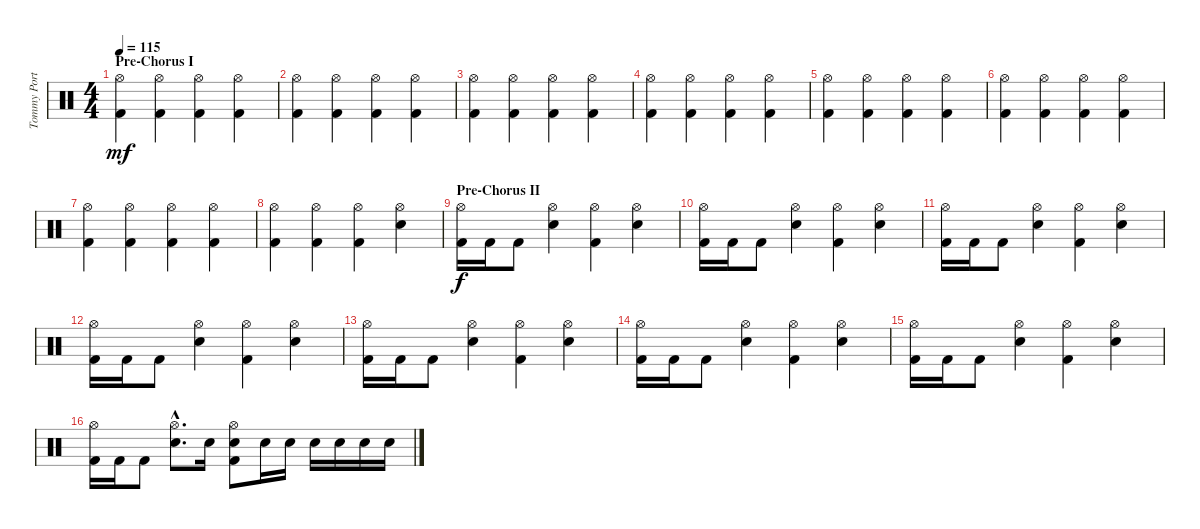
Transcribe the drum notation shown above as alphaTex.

\track ("Tommy Portino - Drums" "Tommy Port") {instrument percussion}
\staff {score}
\articulation defaults
\ts (4 4)
\section ("" "Pre-Chorus I")
\tempo 115
\clef neutral
\ks c
("Hi-Hat (open)" "Kick (hit) 2").4{dy mf} ("Hi-Hat (open)" "Kick (hit) 2").4 ("Hi-Hat (open)" "Kick (hit) 2").4 ("Hi-Hat (open)" "Kick (hit) 2").4 |
("Hi-Hat (open)" "Kick (hit) 2").4 ("Hi-Hat (open)" "Kick (hit) 2").4 ("Hi-Hat (open)" "Kick (hit) 2").4 ("Hi-Hat (open)" "Kick (hit) 2").4 |
("Hi-Hat (open)" "Kick (hit) 2").4 ("Hi-Hat (open)" "Kick (hit) 2").4 ("Hi-Hat (open)" "Kick (hit) 2").4 ("Hi-Hat (open)" "Kick (hit) 2").4 |
("Hi-Hat (open)" "Kick (hit) 2").4 ("Hi-Hat (open)" "Kick (hit) 2").4 ("Hi-Hat (open)" "Kick (hit) 2").4 ("Hi-Hat (open)" "Kick (hit) 2").4 |
("Hi-Hat (open)" "Kick (hit) 2").4 ("Hi-Hat (open)" "Kick (hit) 2").4 ("Hi-Hat (open)" "Kick (hit) 2").4 ("Hi-Hat (open)" "Kick (hit) 2").4 |
("Hi-Hat (open)" "Kick (hit) 2").4 ("Hi-Hat (open)" "Kick (hit) 2").4 ("Hi-Hat (open)" "Kick (hit) 2").4 ("Hi-Hat (open)" "Kick (hit) 2").4 |
("Hi-Hat (open)" "Kick (hit) 2").4 ("Hi-Hat (open)" "Kick (hit) 2").4 ("Hi-Hat (open)" "Kick (hit) 2").4 ("Hi-Hat (open)" "Kick (hit) 2").4 |
("Hi-Hat (open)" "Kick (hit) 2").4 ("Hi-Hat (open)" "Kick (hit) 2").4 ("Hi-Hat (open)" "Kick (hit) 2").4 ("Hi-Hat (open)" "Electric Snare (hit)").4 |
\section ("" "Pre-Chorus II")
("Hi-Hat (open)" "Kick (hit) 2").16{dy f} "Kick (hit) 2".16 "Kick (hit) 2".8 ("Hi-Hat (open)" "Electric Snare (hit)").4 ("Hi-Hat (open)" "Kick (hit) 2").4 ("Hi-Hat (open)" "Electric Snare (hit)").4 |
("Hi-Hat (open)" "Kick (hit) 2").16 "Kick (hit) 2".16 "Kick (hit) 2".8 ("Hi-Hat (open)" "Electric Snare (hit)").4 ("Hi-Hat (open)" "Kick (hit) 2").4 ("Hi-Hat (open)" "Electric Snare (hit)").4 |
("Hi-Hat (open)" "Kick (hit) 2").16 "Kick (hit) 2".16 "Kick (hit) 2".8 ("Hi-Hat (open)" "Electric Snare (hit)").4 ("Hi-Hat (open)" "Kick (hit) 2").4 ("Hi-Hat (open)" "Electric Snare (hit)").4 |
("Hi-Hat (open)" "Kick (hit) 2").16 "Kick (hit) 2".16 "Kick (hit) 2".8 ("Hi-Hat (open)" "Electric Snare (hit)").4 ("Hi-Hat (open)" "Kick (hit) 2").4 ("Hi-Hat (open)" "Electric Snare (hit)").4 |
("Hi-Hat (open)" "Kick (hit) 2").16 "Kick (hit) 2".16 "Kick (hit) 2".8 ("Hi-Hat (open)" "Electric Snare (hit)").4 ("Hi-Hat (open)" "Kick (hit) 2").4 ("Hi-Hat (open)" "Electric Snare (hit)").4 |
("Hi-Hat (open)" "Kick (hit) 2").16 "Kick (hit) 2".16 "Kick (hit) 2".8 ("Hi-Hat (open)" "Electric Snare (hit)").4 ("Hi-Hat (open)" "Kick (hit) 2").4 ("Hi-Hat (open)" "Electric Snare (hit)").4 |
("Hi-Hat (open)" "Kick (hit) 2").16 "Kick (hit) 2".16 "Kick (hit) 2".8 ("Hi-Hat (open)" "Electric Snare (hit)").4 ("Hi-Hat (open)" "Kick (hit) 2").4 ("Hi-Hat (open)" "Electric Snare (hit)").4 |
("Hi-Hat (open)" "Kick (hit) 2").16 "Kick (hit) 2".16 "Kick (hit) 2".8 ("Hi-Hat (open)"{hac} "Electric Snare (hit)"{hac}).8{d} "Electric Snare (hit)".16 ("Hi-Hat (open)" "Electric Snare (hit)" "Kick (hit) 2").8 "Electric Snare (hit)".16 "Electric Snare (hit)".16 "Electric Snare (hit)".16 "Electric Snare (hit)".16 "Electric Snare (hit)".16 "Electric Snare (hit)".16
